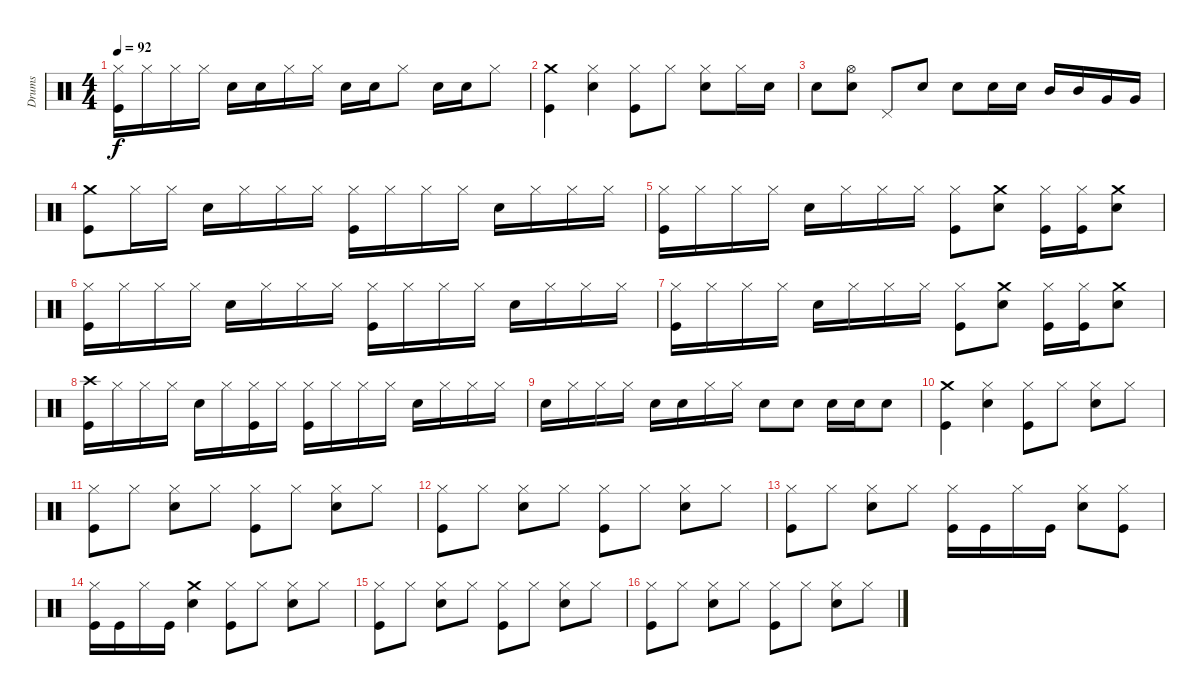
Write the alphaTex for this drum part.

\track ("Drums" "Drums") {instrument percussion}
\staff {score}
\articulation defaults
\ts (4 4)
\tempo 92
\clef neutral
\ks c
("Kick (hit)" "Hi-Hat (closed)").16{dy f} "Hi-Hat (closed)".16 "Hi-Hat (closed)".16 "Hi-Hat (closed)".16 "Electric Snare (hit)".16 "Electric Snare (hit)".16 "Hi-Hat (closed)".16 "Hi-Hat (closed)".16 "Electric Snare (hit)".16 "Electric Snare (hit)".16 "Hi-Hat (closed)".8 "Electric Snare (hit)".16 "Electric Snare (hit)".16 "Hi-Hat (closed)".8 |
("Kick (hit)" "Crash medium (hit)").4 ("Electric Snare (hit)" "Hi-Hat (closed)").4 ("Kick (hit)" "Hi-Hat (closed)").8 "Hi-Hat (closed)".8 ("Electric Snare (hit)" "Hi-Hat (closed)").8 "Hi-Hat (closed)".16 "Electric Snare (hit)".16 |
"Electric Snare (hit)".8 ("Electric Snare (hit)" "Hi-Hat (open)").8 "Pedal Hi-Hat (hit)".8 "Electric Snare (hit)".8 "Electric Snare (hit)".8 "Electric Snare (hit)".16 "Electric Snare (hit)".16 "Mid Tom (hit)".16 "Mid Tom (hit)".16 "Very Low Tom (hit)".16 "Very Low Tom (hit)".16 |
("Kick (hit)" "Crash medium (hit)").8 "Hi-Hat (closed)".16 "Hi-Hat (closed)".16 "Electric Snare (hit)".16 "Hi-Hat (closed)".16 "Hi-Hat (closed)".16 "Hi-Hat (closed)".16 ("Kick (hit)" "Hi-Hat (closed)").16 "Hi-Hat (closed)".16 "Hi-Hat (closed)".16 "Hi-Hat (closed)".16 "Electric Snare (hit)".16 "Hi-Hat (closed)".16 "Hi-Hat (closed)".16 "Hi-Hat (closed)".16 |
("Kick (hit)" "Hi-Hat (closed)").16 "Hi-Hat (closed)".16 "Hi-Hat (closed)".16 "Hi-Hat (closed)".16 "Electric Snare (hit)".16 "Hi-Hat (closed)".16 "Hi-Hat (closed)".16 "Hi-Hat (closed)".16 ("Kick (hit)" "Hi-Hat (closed)").8 ("Electric Snare (hit)" "Crash medium (hit)").8 ("Kick (hit)" "Hi-Hat (closed)").16 ("Kick (hit)" "Hi-Hat (closed)").16 ("Electric Snare (hit)" "Crash medium (hit)").8 |
("Kick (hit)" "Hi-Hat (closed)").16 "Hi-Hat (closed)".16 "Hi-Hat (closed)".16 "Hi-Hat (closed)".16 "Electric Snare (hit)".16 "Hi-Hat (closed)".16 "Hi-Hat (closed)".16 "Hi-Hat (closed)".16 ("Kick (hit)" "Hi-Hat (closed)").16 "Hi-Hat (closed)".16 "Hi-Hat (closed)".16 "Hi-Hat (closed)".16 "Electric Snare (hit)".16 "Hi-Hat (closed)".16 "Hi-Hat (closed)".16 "Hi-Hat (closed)".16 |
("Kick (hit)" "Hi-Hat (closed)").16 "Hi-Hat (closed)".16 "Hi-Hat (closed)".16 "Hi-Hat (closed)".16 "Electric Snare (hit)".16 "Hi-Hat (closed)".16 "Hi-Hat (closed)".16 "Hi-Hat (closed)".16 ("Kick (hit)" "Hi-Hat (closed)").8 ("Electric Snare (hit)" "Crash medium (hit)").8 ("Kick (hit)" "Hi-Hat (closed)").16 ("Kick (hit)" "Hi-Hat (closed)").16 ("Electric Snare (hit)" "Crash medium (hit)").8 |
("Kick (hit)" "Crash high (hit)").16 "Hi-Hat (closed)".16 "Hi-Hat (closed)".16 "Hi-Hat (closed)".16 "Electric Snare (hit)".16 "Hi-Hat (closed)".16 ("Kick (hit)" "Hi-Hat (closed)").16 "Hi-Hat (closed)".16 ("Kick (hit)" "Hi-Hat (closed)").16 "Hi-Hat (closed)".16 "Hi-Hat (closed)".16 "Hi-Hat (closed)".16 "Electric Snare (hit)".16 "Hi-Hat (closed)".16 "Hi-Hat (closed)".16 "Hi-Hat (closed)".16 |
"Electric Snare (hit)".16 "Hi-Hat (closed)".16 "Hi-Hat (closed)".16 "Hi-Hat (closed)".16 "Electric Snare (hit)".16 "Electric Snare (hit)".16 "Hi-Hat (closed)".16 "Hi-Hat (closed)".16 "Electric Snare (hit)".8 "Electric Snare (hit)".8 "Electric Snare (hit)".16 "Electric Snare (hit)".16 "Electric Snare (hit)".8 |
("Kick (hit)" "Crash medium (hit)").4 ("Electric Snare (hit)" "Hi-Hat (closed)").4 ("Kick (hit)" "Hi-Hat (closed)").8 "Hi-Hat (closed)".8 ("Electric Snare (hit)" "Hi-Hat (closed)").8 "Hi-Hat (closed)".8 |
("Kick (hit)" "Hi-Hat (closed)").8 "Hi-Hat (closed)".8 ("Electric Snare (hit)" "Hi-Hat (closed)").8 "Hi-Hat (closed)".8 ("Kick (hit)" "Hi-Hat (closed)").8 "Hi-Hat (closed)".8 ("Electric Snare (hit)" "Hi-Hat (closed)").8 "Hi-Hat (closed)".8 |
("Kick (hit)" "Hi-Hat (closed)").8 "Hi-Hat (closed)".8 ("Electric Snare (hit)" "Hi-Hat (closed)").8 "Hi-Hat (closed)".8 ("Kick (hit)" "Hi-Hat (closed)").8 "Hi-Hat (closed)".8 ("Electric Snare (hit)" "Hi-Hat (closed)").8 "Hi-Hat (closed)".8 |
("Kick (hit)" "Hi-Hat (closed)").8 "Hi-Hat (closed)".8 ("Electric Snare (hit)" "Hi-Hat (closed)").8 "Hi-Hat (closed)".8 ("Kick (hit)" "Hi-Hat (closed)").16 "Kick (hit)".16 "Hi-Hat (closed)".16 "Kick (hit)".16 ("Electric Snare (hit)" "Hi-Hat (closed)").8 ("Kick (hit)" "Hi-Hat (closed)").8 |
("Kick (hit)" "Hi-Hat (closed)").16 "Kick (hit)".16 "Hi-Hat (closed)".16 "Kick (hit)".16 ("Electric Snare (hit)" "Crash medium (hit)").4 ("Kick (hit)" "Hi-Hat (closed)").8 "Hi-Hat (closed)".8 ("Electric Snare (hit)" "Hi-Hat (closed)").8 "Hi-Hat (closed)".8 |
("Kick (hit)" "Hi-Hat (closed)").8 "Hi-Hat (closed)".8 ("Electric Snare (hit)" "Hi-Hat (closed)").8 "Hi-Hat (closed)".8 ("Kick (hit)" "Hi-Hat (closed)").8 "Hi-Hat (closed)".8 ("Electric Snare (hit)" "Hi-Hat (closed)").8 "Hi-Hat (closed)".8 |
("Kick (hit)" "Hi-Hat (closed)").8 "Hi-Hat (closed)".8 ("Electric Snare (hit)" "Hi-Hat (closed)").8 "Hi-Hat (closed)".8 ("Kick (hit)" "Hi-Hat (closed)").8 "Hi-Hat (closed)".8 ("Electric Snare (hit)" "Hi-Hat (closed)").8 "Hi-Hat (closed)".8
